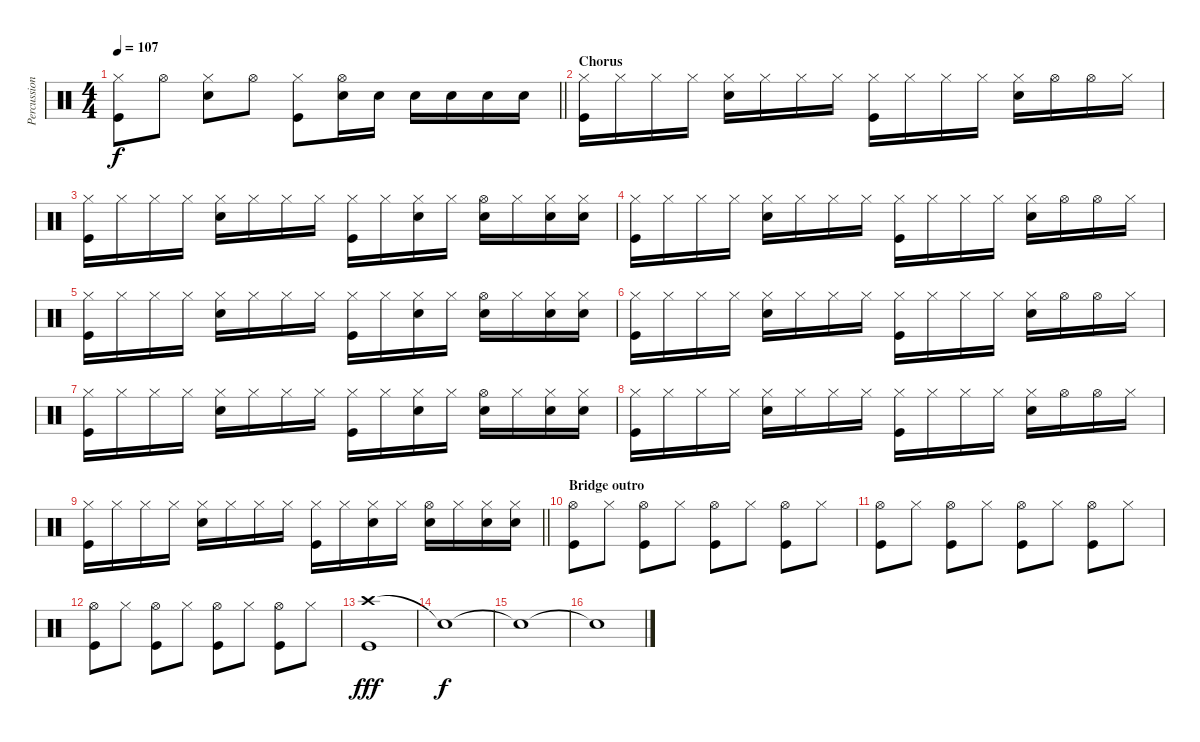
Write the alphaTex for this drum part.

\track ("Percussion" "Percussion") {instrument percussion}
\staff {score}
\articulation defaults
\ts (4 4)
\tempo 107
\clef neutral
\barLineRight lightlight
\ks c
("Hi-Hat (closed)" "Kick (hit)").8{dy f} "Hi-Hat (open)".8 ("Hi-Hat (closed)" "Snare (hit) 2").8 "Hi-Hat (open)".8 ("Hi-Hat (closed)" "Kick (hit)").8 ("Hi-Hat (open)" "Snare (hit) 2").16 "Snare (hit) 2".16 "Snare (hit) 2".16 "Snare (hit) 2".16 "Snare (hit) 2".16 "Snare (hit) 2".16 |
\section ("" "Chorus")
("Hi-Hat (closed)" "Kick (hit)").16 "Hi-Hat (closed)".16 "Hi-Hat (closed)".16 "Hi-Hat (closed)".16 ("Hi-Hat (closed)" "Snare (hit) 2").16 "Hi-Hat (closed)".16 "Hi-Hat (closed)".16 "Hi-Hat (closed)".16 ("Hi-Hat (closed)" "Kick (hit)").16 "Hi-Hat (closed)".16 "Hi-Hat (closed)".16 "Hi-Hat (closed)".16 ("Hi-Hat (closed)" "Snare (hit) 2").16 "Hi-Hat (open)".16 "Hi-Hat (open)".16 "Hi-Hat (closed)".16 |
("Hi-Hat (closed)" "Kick (hit)").16 "Hi-Hat (closed)".16 "Hi-Hat (closed)".16 "Hi-Hat (closed)".16 ("Hi-Hat (closed)" "Snare (hit) 2").16 "Hi-Hat (closed)".16 "Hi-Hat (closed)".16 "Hi-Hat (closed)".16 ("Hi-Hat (closed)" "Kick (hit)").16 "Hi-Hat (closed)".16 ("Hi-Hat (closed)" "Snare (hit) 2").16 "Hi-Hat (closed)".16 ("Hi-Hat (open)" "Snare (hit) 2").16 "Hi-Hat (closed)".16 ("Hi-Hat (closed)" "Snare (hit) 2").16 ("Hi-Hat (closed)" "Snare (hit) 2").16 |
("Hi-Hat (closed)" "Kick (hit)").16 "Hi-Hat (closed)".16 "Hi-Hat (closed)".16 "Hi-Hat (closed)".16 ("Hi-Hat (closed)" "Snare (hit) 2").16 "Hi-Hat (closed)".16 "Hi-Hat (closed)".16 "Hi-Hat (closed)".16 ("Hi-Hat (closed)" "Kick (hit)").16 "Hi-Hat (closed)".16 "Hi-Hat (closed)".16 "Hi-Hat (closed)".16 ("Hi-Hat (closed)" "Snare (hit) 2").16 "Hi-Hat (open)".16 "Hi-Hat (open)".16 "Hi-Hat (closed)".16 |
("Hi-Hat (closed)" "Kick (hit)").16 "Hi-Hat (closed)".16 "Hi-Hat (closed)".16 "Hi-Hat (closed)".16 ("Hi-Hat (closed)" "Snare (hit) 2").16 "Hi-Hat (closed)".16 "Hi-Hat (closed)".16 "Hi-Hat (closed)".16 ("Hi-Hat (closed)" "Kick (hit)").16 "Hi-Hat (closed)".16 ("Hi-Hat (closed)" "Snare (hit) 2").16 "Hi-Hat (closed)".16 ("Hi-Hat (open)" "Snare (hit) 2").16 "Hi-Hat (closed)".16 ("Hi-Hat (closed)" "Snare (hit) 2").16 ("Hi-Hat (closed)" "Snare (hit) 2").16 |
("Hi-Hat (closed)" "Kick (hit)").16 "Hi-Hat (closed)".16 "Hi-Hat (closed)".16 "Hi-Hat (closed)".16 ("Hi-Hat (closed)" "Snare (hit) 2").16 "Hi-Hat (closed)".16 "Hi-Hat (closed)".16 "Hi-Hat (closed)".16 ("Hi-Hat (closed)" "Kick (hit)").16 "Hi-Hat (closed)".16 "Hi-Hat (closed)".16 "Hi-Hat (closed)".16 ("Hi-Hat (closed)" "Snare (hit) 2").16 "Hi-Hat (open)".16 "Hi-Hat (open)".16 "Hi-Hat (closed)".16 |
("Hi-Hat (closed)" "Kick (hit)").16 "Hi-Hat (closed)".16 "Hi-Hat (closed)".16 "Hi-Hat (closed)".16 ("Hi-Hat (closed)" "Snare (hit) 2").16 "Hi-Hat (closed)".16 "Hi-Hat (closed)".16 "Hi-Hat (closed)".16 ("Hi-Hat (closed)" "Kick (hit)").16 "Hi-Hat (closed)".16 ("Hi-Hat (closed)" "Snare (hit) 2").16 "Hi-Hat (closed)".16 ("Hi-Hat (open)" "Snare (hit) 2").16 "Hi-Hat (closed)".16 ("Hi-Hat (closed)" "Snare (hit) 2").16 ("Hi-Hat (closed)" "Snare (hit) 2").16 |
("Hi-Hat (closed)" "Kick (hit)").16 "Hi-Hat (closed)".16 "Hi-Hat (closed)".16 "Hi-Hat (closed)".16 ("Hi-Hat (closed)" "Snare (hit) 2").16 "Hi-Hat (closed)".16 "Hi-Hat (closed)".16 "Hi-Hat (closed)".16 ("Hi-Hat (closed)" "Kick (hit)").16 "Hi-Hat (closed)".16 "Hi-Hat (closed)".16 "Hi-Hat (closed)".16 ("Hi-Hat (closed)" "Snare (hit) 2").16 "Hi-Hat (open)".16 "Hi-Hat (open)".16 "Hi-Hat (closed)".16 |
\barLineRight lightlight
("Hi-Hat (closed)" "Kick (hit)").16 "Hi-Hat (closed)".16 "Hi-Hat (closed)".16 "Hi-Hat (closed)".16 ("Hi-Hat (closed)" "Snare (hit) 2").16 "Hi-Hat (closed)".16 "Hi-Hat (closed)".16 "Hi-Hat (closed)".16 ("Hi-Hat (closed)" "Kick (hit)").16 "Hi-Hat (closed)".16 ("Hi-Hat (closed)" "Snare (hit) 2").16 "Hi-Hat (closed)".16 ("Hi-Hat (open)" "Snare (hit) 2").16 "Hi-Hat (closed)".16 ("Hi-Hat (closed)" "Snare (hit) 2").16 ("Hi-Hat (closed)" "Snare (hit) 2").16 |
\section ("" "Bridge outro")
("Hi-Hat (open)" "Kick (hit)").8 "Hi-Hat (closed)".8 ("Hi-Hat (open)" "Kick (hit)").8 "Hi-Hat (closed)".8 ("Hi-Hat (open)" "Kick (hit)").8 "Hi-Hat (closed)".8 ("Hi-Hat (open)" "Kick (hit)").8 "Hi-Hat (closed)".8 |
("Hi-Hat (open)" "Kick (hit)").8 "Hi-Hat (closed)".8 ("Hi-Hat (open)" "Kick (hit)").8 "Hi-Hat (closed)".8 ("Hi-Hat (open)" "Kick (hit)").8 "Hi-Hat (closed)".8 ("Hi-Hat (open)" "Kick (hit)").8 "Hi-Hat (closed)".8 |
("Hi-Hat (open)" "Kick (hit)").8 "Hi-Hat (closed)".8 ("Hi-Hat (open)" "Kick (hit)").8 "Hi-Hat (closed)".8 ("Hi-Hat (open)" "Kick (hit)").8 "Hi-Hat (closed)".8 ("Hi-Hat (open)" "Kick (hit)").8 "Hi-Hat (closed)".8 |
("Crash high (hit)" "Kick (hit)").1{dy fff} |
"Snare (hit)"{t}.1{dy f} |
"Snare (hit)"{t}.1 |
"Snare (hit)"{t}.1
